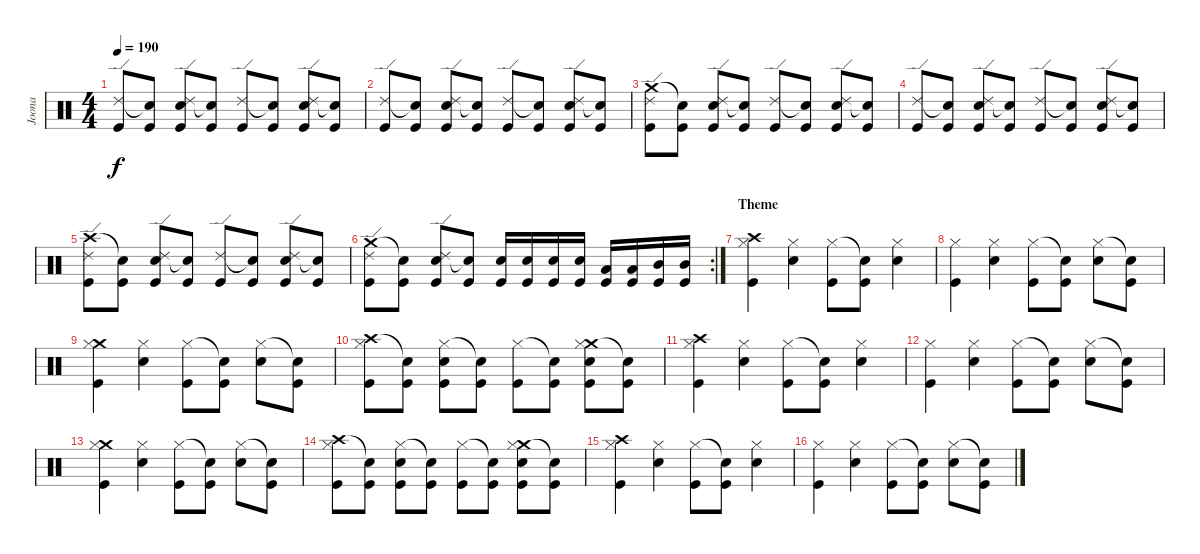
\track ("Joona" "Joona") {instrument percussion}
\staff {score}
\articulation defaults
\ts (4 4)
\tempo 190
\clef neutral
\ks c
("Ride (edge) 2" "Kick (hit)").8{dy f} ("Snare (hit)"{t} "Kick (hit)").8 ("Ride (edge) 2" "Snare (hit) 2" "Kick (hit)").8 ("Snare (hit)"{t} "Kick (hit)").8 ("Ride (edge) 2" "Kick (hit)").8 ("Snare (hit)"{t} "Kick (hit)").8 ("Ride (edge) 2" "Snare (hit) 2" "Kick (hit)").8 ("Snare (hit)"{t} "Kick (hit)").8 |
("Ride (edge) 2" "Kick (hit)").8 ("Snare (hit)"{t} "Kick (hit)").8 ("Ride (edge) 2" "Snare (hit) 2" "Kick (hit)").8 ("Snare (hit)"{t} "Kick (hit)").8 ("Ride (edge) 2" "Kick (hit)").8 ("Snare (hit)"{t} "Kick (hit)").8 ("Ride (edge) 2" "Snare (hit) 2" "Kick (hit)").8 ("Snare (hit)"{t} "Kick (hit)").8 |
("Crash medium (hit)" "Ride (edge) 2" "Kick (hit)").8 ("Snare (hit)"{t} "Kick (hit)").8 ("Ride (edge) 2" "Snare (hit) 2" "Kick (hit)").8 ("Snare (hit)"{t} "Kick (hit)").8 ("Ride (edge) 2" "Kick (hit)").8 ("Snare (hit)"{t} "Kick (hit)").8 ("Ride (edge) 2" "Snare (hit) 2" "Kick (hit)").8 ("Snare (hit)"{t} "Kick (hit)").8 |
("Ride (edge) 2" "Kick (hit)").8 ("Snare (hit)"{t} "Kick (hit)").8 ("Ride (edge) 2" "Snare (hit) 2" "Kick (hit)").8 ("Snare (hit)"{t} "Kick (hit)").8 ("Ride (edge) 2" "Kick (hit)").8 ("Snare (hit)"{t} "Kick (hit)").8 ("Ride (edge) 2" "Snare (hit) 2" "Kick (hit)").8 ("Snare (hit)"{t} "Kick (hit)").8 |
("Crash high (hit)" "Ride (edge) 2" "Kick (hit)").8 ("Snare (hit)"{t} "Kick (hit)").8 ("Ride (edge) 2" "Snare (hit) 2" "Kick (hit)").8 ("Snare (hit)"{t} "Kick (hit)").8 ("Ride (edge) 2" "Kick (hit)").8 ("Snare (hit)"{t} "Kick (hit)").8 ("Ride (edge) 2" "Snare (hit) 2" "Kick (hit)").8 ("Snare (hit)"{t} "Kick (hit)").8 |
\rc 2
("Crash medium (hit)" "Ride (edge) 2" "Kick (hit)").8 ("Snare (hit)"{t} "Kick (hit)").8 ("Ride (edge) 2" "Snare (hit) 2" "Kick (hit)").8 ("Snare (hit)"{t} "Kick (hit)").8 ("Snare (hit) 2" "Kick (hit)").16 ("Snare (hit) 2" "Kick (hit)").16 ("Snare (hit) 2" "Kick (hit)").16 ("Snare (hit) 2" "Kick (hit)").16 ("Low Tom (hit)" "Kick (hit)").16 ("Low Tom (hit)" "Kick (hit)").16 ("Mid Tom (hit)" "Kick (hit)").16 ("Mid Tom (hit)" "Kick (hit)").16 |
\section ("" "Theme")
("Crash high (hit)" "Hi-Hat (closed)" "Kick (hit)").4 ("Hi-Hat (closed)" "Snare (hit) 2").4 ("Hi-Hat (closed)" "Kick (hit)").8 ("Snare (hit)"{t} "Kick (hit)").8 ("Hi-Hat (closed)" "Snare (hit) 2").4 |
("Hi-Hat (closed)" "Kick (hit)").4 ("Hi-Hat (closed)" "Snare (hit) 2").4 ("Hi-Hat (closed)" "Kick (hit)").8 ("Snare (hit)"{t} "Kick (hit)").8 ("Hi-Hat (closed)" "Snare (hit) 2").8 ("Snare (hit)"{t} "Kick (hit)").8 |
("Crash medium (hit)" "Hi-Hat (closed)" "Kick (hit)").4 ("Hi-Hat (closed)" "Snare (hit) 2").4 ("Hi-Hat (closed)" "Kick (hit)").8 ("Snare (hit)"{t} "Kick (hit)").8 ("Hi-Hat (closed)" "Snare (hit) 2").8 ("Snare (hit)"{t} "Kick (hit)").8 |
("Crash high (hit)" "Hi-Hat (closed)" "Kick (hit)").8 ("Snare (hit)"{t} "Kick (hit)").8 ("Hi-Hat (closed)" "Snare (hit) 2" "Kick (hit)").8 ("Snare (hit)"{t} "Kick (hit)").8 ("Hi-Hat (closed)" "Kick (hit)").8 ("Snare (hit)"{t} "Kick (hit)").8 ("Crash medium (hit)" "Hi-Hat (closed)" "Snare (hit) 2" "Kick (hit)").8 ("Snare (hit)"{t} "Kick (hit)").8 |
("Crash high (hit)" "Hi-Hat (closed)" "Kick (hit)").4 ("Hi-Hat (closed)" "Snare (hit) 2").4 ("Hi-Hat (closed)" "Kick (hit)").8 ("Snare (hit)"{t} "Kick (hit)").8 ("Hi-Hat (closed)" "Snare (hit) 2").4 |
("Hi-Hat (closed)" "Kick (hit)").4 ("Hi-Hat (closed)" "Snare (hit) 2").4 ("Hi-Hat (closed)" "Kick (hit)").8 ("Snare (hit)"{t} "Kick (hit)").8 ("Hi-Hat (closed)" "Snare (hit) 2").8 ("Snare (hit)"{t} "Kick (hit)").8 |
("Crash medium (hit)" "Hi-Hat (closed)" "Kick (hit)").4 ("Hi-Hat (closed)" "Snare (hit) 2").4 ("Hi-Hat (closed)" "Kick (hit)").8 ("Snare (hit)"{t} "Kick (hit)").8 ("Hi-Hat (closed)" "Snare (hit) 2").8 ("Snare (hit)"{t} "Kick (hit)").8 |
("Crash high (hit)" "Hi-Hat (closed)" "Kick (hit)").8 ("Snare (hit)"{t} "Kick (hit)").8 ("Hi-Hat (closed)" "Snare (hit) 2" "Kick (hit)").8 ("Snare (hit)"{t} "Kick (hit)").8 ("Hi-Hat (closed)" "Kick (hit)").8 ("Snare (hit)"{t} "Kick (hit)").8 ("Crash medium (hit)" "Hi-Hat (closed)" "Snare (hit) 2" "Kick (hit)").8 ("Snare (hit)"{t} "Kick (hit)").8 |
("Crash high (hit)" "Hi-Hat (closed)" "Kick (hit)").4 ("Hi-Hat (closed)" "Snare (hit) 2").4 ("Hi-Hat (closed)" "Kick (hit)").8 ("Snare (hit)"{t} "Kick (hit)").8 ("Hi-Hat (closed)" "Snare (hit) 2").4 |
("Hi-Hat (closed)" "Kick (hit)").4 ("Hi-Hat (closed)" "Snare (hit) 2").4 ("Hi-Hat (closed)" "Kick (hit)").8 ("Snare (hit)"{t} "Kick (hit)").8 ("Hi-Hat (closed)" "Snare (hit) 2").8 ("Snare (hit)"{t} "Kick (hit)").8
